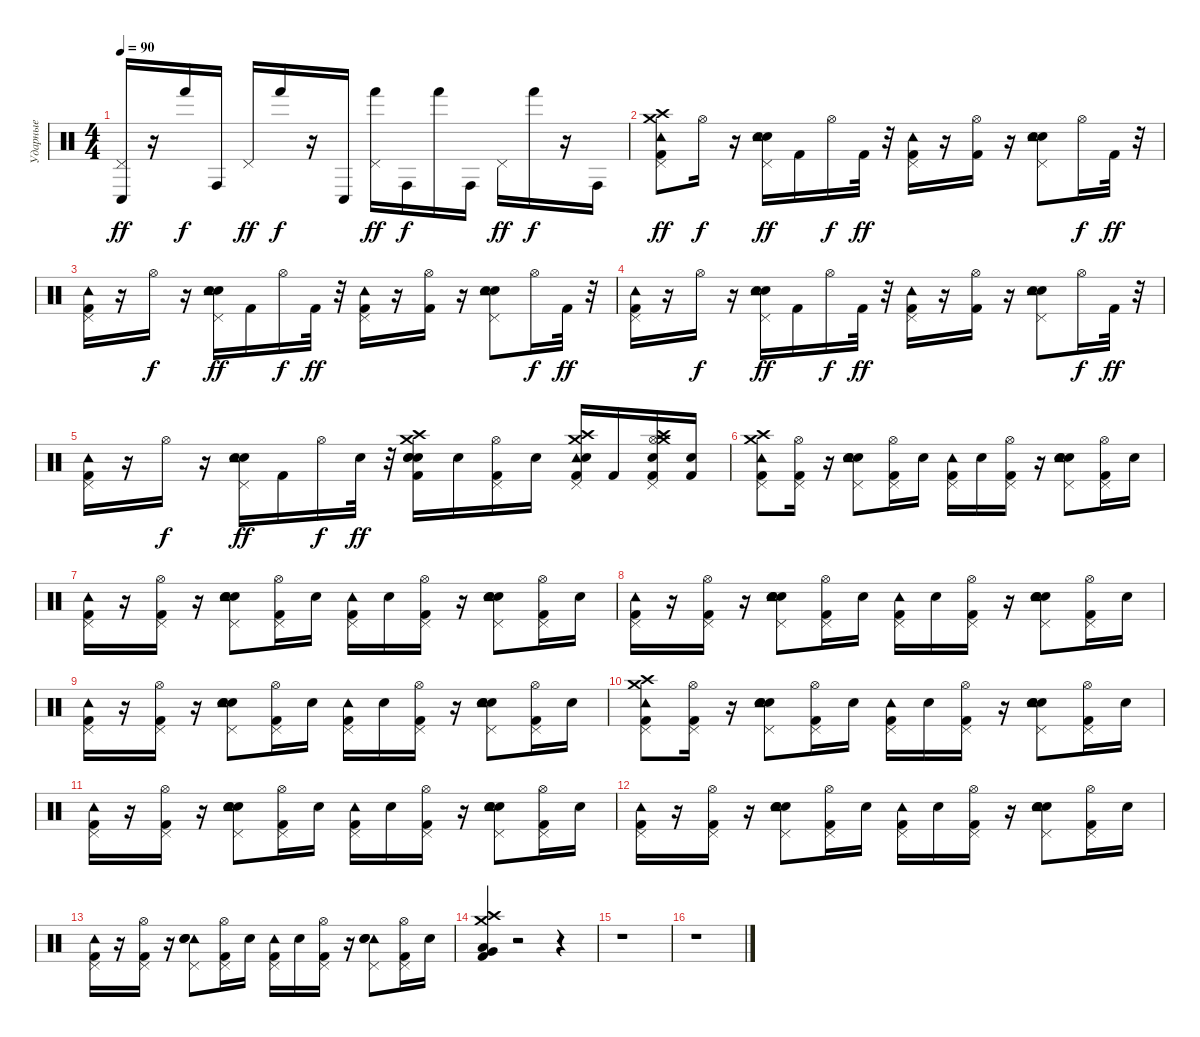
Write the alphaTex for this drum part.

\track ("Ударные" "Ударные") {instrument percussion}
\staff {score}
\articulation defaults
\ts (4 4)
\tempo 90
\clef neutral
\ks c
("Conga low (hit)" "Pedal Hi-Hat (hit)").16{dy ff} r.16 "Hand (hit)".16{dy f} "Conga high (hit)".16 "Pedal Hi-Hat (hit)".16{dy ff} "Hand (hit)".16{dy f} r.16 "Conga low (hit)".16 ("Hand (hit)" "Pedal Hi-Hat (hit)").16{dy ff} "Conga high (hit)".16{dy f} "Hand (hit)".16 "Conga high (hit)".16 "Pedal Hi-Hat (hit)".16{dy ff} "Hand (hit)".16{dy f} r.16 "Conga high (hit)".16 |
("Kick (hit) 2" "Tambourine (hit)" "Crash high (hit)" "Crash medium (hit)" "Pedal Hi-Hat (hit)").8{dy ff} "Hi-Hat (open)".16{dy f} r.16 ("Snare (hit) 2" "Hand Clap (hit)" "Tambourine (hit)" "Pedal Hi-Hat (hit)").16{dy ff} "Kick (hit) 2".16 "Hi-Hat (open)".16{dy f} "Kick (hit) 2".32{dy ff} r.32 ("Kick (hit) 2" "Tambourine (hit)" "Pedal Hi-Hat (hit)").16 r.16 ("Kick (hit) 2" "Hi-Hat (open)").16 r.16 ("Snare (hit) 2" "Hand Clap (hit)" "Tambourine (hit)" "Pedal Hi-Hat (hit)").8 "Hi-Hat (open)".16{dy f} "Kick (hit) 2".32{dy ff} r.32 |
("Kick (hit) 2" "Tambourine (hit)" "Pedal Hi-Hat (hit)").16 r.16 "Hi-Hat (open)".16{dy f} r.16 ("Snare (hit) 2" "Hand Clap (hit)" "Tambourine (hit)" "Pedal Hi-Hat (hit)").16{dy ff} "Kick (hit) 2".16 "Hi-Hat (open)".16{dy f} "Kick (hit) 2".32{dy ff} r.32 ("Kick (hit) 2" "Tambourine (hit)" "Pedal Hi-Hat (hit)").16 r.16 ("Kick (hit) 2" "Hi-Hat (open)").16 r.16 ("Snare (hit) 2" "Hand Clap (hit)" "Tambourine (hit)" "Pedal Hi-Hat (hit)").8 "Hi-Hat (open)".16{dy f} "Kick (hit) 2".32{dy ff} r.32 |
("Kick (hit) 2" "Tambourine (hit)" "Pedal Hi-Hat (hit)").16 r.16 "Hi-Hat (open)".16{dy f} r.16 ("Snare (hit) 2" "Hand Clap (hit)" "Tambourine (hit)" "Pedal Hi-Hat (hit)").16{dy ff} "Kick (hit) 2".16 "Hi-Hat (open)".16{dy f} "Kick (hit) 2".32{dy ff} r.32 ("Kick (hit) 2" "Tambourine (hit)" "Pedal Hi-Hat (hit)").16 r.16 ("Kick (hit) 2" "Hi-Hat (open)").16 r.16 ("Snare (hit) 2" "Hand Clap (hit)" "Tambourine (hit)" "Pedal Hi-Hat (hit)").8 "Hi-Hat (open)".16{dy f} "Kick (hit) 2".32{dy ff} r.32 |
("Kick (hit) 2" "Tambourine (hit)" "Pedal Hi-Hat (hit)").16 r.16 "Hi-Hat (open)".16{dy f} r.16 ("Snare (hit) 2" "Hand Clap (hit)" "Tambourine (hit)" "Pedal Hi-Hat (hit)").16{dy ff} "Kick (hit) 2".16 "Hi-Hat (open)".16{dy f} "Electric Snare (hit)".32{dy ff} r.32 ("Electric Snare (hit)" "Electric Snare (hit)" "Kick (hit) 2" "Crash high (hit)" "Crash medium (hit)" "Electric Snare (hit)").16 "Electric Snare (hit)".16 ("Kick (hit) 2" "Hi-Hat (open)" "Pedal Hi-Hat (hit)").16 "Electric Snare (hit)".16 ("Kick (hit) 2" "Crash high (hit)" "Crash medium (hit)" "Tambourine (hit)" "Pedal Hi-Hat (hit)" "Electric Snare (hit)").16 "Kick (hit) 2".16 ("Kick (hit) 2" "Hi-Hat (open)" "Pedal Hi-Hat (hit)" "Crash high (hit)" "Crash medium (hit)" "Electric Snare (hit)").16 ("Kick (hit) 2" "Electric Snare (hit)").16 |
("Kick (hit) 2" "Tambourine (hit)" "Crash high (hit)" "Crash medium (hit)" "Pedal Hi-Hat (hit)").8 ("Kick (hit) 2" "Hi-Hat (open)" "Pedal Hi-Hat (hit)").16 r.16 ("Electric Snare (hit)" "Snare (hit) 2" "Hand Clap (hit)" "Tambourine (hit)" "Pedal Hi-Hat (hit)").8 ("Kick (hit) 2" "Hi-Hat (open)" "Pedal Hi-Hat (hit)").16 "Snare (hit) 2".16 ("Kick (hit) 2" "Tambourine (hit)" "Pedal Hi-Hat (hit)").16 "Snare (hit) 2".16 ("Kick (hit) 2" "Hi-Hat (open)" "Pedal Hi-Hat (hit)").16 r.16 ("Electric Snare (hit)" "Snare (hit) 2" "Hand Clap (hit)" "Tambourine (hit)" "Pedal Hi-Hat (hit)").8 ("Kick (hit) 2" "Hi-Hat (open)" "Pedal Hi-Hat (hit)").16 "Snare (hit) 2".16 |
("Kick (hit) 2" "Tambourine (hit)" "Pedal Hi-Hat (hit)").16 r.16 ("Kick (hit) 2" "Hi-Hat (open)" "Pedal Hi-Hat (hit)").16 r.16 ("Electric Snare (hit)" "Hand Clap (hit)" "Snare (hit) 2" "Tambourine (hit)" "Pedal Hi-Hat (hit)").8 ("Kick (hit) 2" "Hi-Hat (open)" "Pedal Hi-Hat (hit)").16 "Snare (hit) 2".16 ("Kick (hit) 2" "Tambourine (hit)" "Pedal Hi-Hat (hit)").16 "Snare (hit) 2".16 ("Kick (hit) 2" "Hi-Hat (open)" "Pedal Hi-Hat (hit)").16 r.16 ("Electric Snare (hit)" "Hand Clap (hit)" "Snare (hit) 2" "Tambourine (hit)" "Pedal Hi-Hat (hit)").8 ("Kick (hit) 2" "Hi-Hat (open)" "Pedal Hi-Hat (hit)").16 "Snare (hit) 2".16 |
("Kick (hit) 2" "Tambourine (hit)" "Pedal Hi-Hat (hit)").16 r.16 ("Kick (hit) 2" "Hi-Hat (open)" "Pedal Hi-Hat (hit)").16 r.16 ("Electric Snare (hit)" "Hand Clap (hit)" "Snare (hit) 2" "Tambourine (hit)" "Pedal Hi-Hat (hit)").8 ("Kick (hit) 2" "Hi-Hat (open)" "Pedal Hi-Hat (hit)").16 "Snare (hit) 2".16 ("Kick (hit) 2" "Tambourine (hit)" "Pedal Hi-Hat (hit)").16 "Snare (hit) 2".16 ("Kick (hit) 2" "Hi-Hat (open)" "Pedal Hi-Hat (hit)").16 r.16 ("Electric Snare (hit)" "Hand Clap (hit)" "Snare (hit) 2" "Tambourine (hit)" "Pedal Hi-Hat (hit)").8 ("Kick (hit) 2" "Hi-Hat (open)" "Pedal Hi-Hat (hit)").16 "Snare (hit) 2".16 |
("Kick (hit) 2" "Tambourine (hit)" "Pedal Hi-Hat (hit)").16 r.16 ("Kick (hit) 2" "Hi-Hat (open)" "Pedal Hi-Hat (hit)").16 r.16 ("Electric Snare (hit)" "Hand Clap (hit)" "Snare (hit) 2" "Tambourine (hit)" "Pedal Hi-Hat (hit)").8 ("Kick (hit) 2" "Hi-Hat (open)" "Pedal Hi-Hat (hit)").16 "Snare (hit) 2".16 ("Kick (hit) 2" "Tambourine (hit)" "Pedal Hi-Hat (hit)").16 "Snare (hit) 2".16 ("Kick (hit) 2" "Hi-Hat (open)" "Pedal Hi-Hat (hit)").16 r.16 ("Electric Snare (hit)" "Hand Clap (hit)" "Snare (hit) 2" "Tambourine (hit)" "Pedal Hi-Hat (hit)").8 ("Kick (hit) 2" "Hi-Hat (open)" "Pedal Hi-Hat (hit)").16 "Snare (hit) 2".16 |
("Kick (hit) 2" "Tambourine (hit)" "Crash high (hit)" "Crash medium (hit)" "Pedal Hi-Hat (hit)").8 ("Kick (hit) 2" "Hi-Hat (open)" "Pedal Hi-Hat (hit)").16 r.16 ("Electric Snare (hit)" "Snare (hit) 2" "Hand Clap (hit)" "Tambourine (hit)" "Pedal Hi-Hat (hit)").8 ("Kick (hit) 2" "Hi-Hat (open)" "Pedal Hi-Hat (hit)").16 "Snare (hit) 2".16 ("Kick (hit) 2" "Tambourine (hit)" "Pedal Hi-Hat (hit)").16 "Snare (hit) 2".16 ("Kick (hit) 2" "Hi-Hat (open)" "Pedal Hi-Hat (hit)").16 r.16 ("Electric Snare (hit)" "Snare (hit) 2" "Hand Clap (hit)" "Tambourine (hit)" "Pedal Hi-Hat (hit)").8 ("Kick (hit) 2" "Hi-Hat (open)" "Pedal Hi-Hat (hit)").16 "Snare (hit) 2".16 |
("Kick (hit) 2" "Tambourine (hit)" "Pedal Hi-Hat (hit)").16 r.16 ("Kick (hit) 2" "Hi-Hat (open)" "Pedal Hi-Hat (hit)").16 r.16 ("Electric Snare (hit)" "Hand Clap (hit)" "Snare (hit) 2" "Tambourine (hit)" "Pedal Hi-Hat (hit)").8 ("Kick (hit) 2" "Hi-Hat (open)" "Pedal Hi-Hat (hit)").16 "Snare (hit) 2".16 ("Kick (hit) 2" "Tambourine (hit)" "Pedal Hi-Hat (hit)").16 "Snare (hit) 2".16 ("Kick (hit) 2" "Hi-Hat (open)" "Pedal Hi-Hat (hit)").16 r.16 ("Electric Snare (hit)" "Hand Clap (hit)" "Snare (hit) 2" "Tambourine (hit)" "Pedal Hi-Hat (hit)").8 ("Kick (hit) 2" "Hi-Hat (open)" "Pedal Hi-Hat (hit)").16 "Snare (hit) 2".16 |
("Tambourine (hit)" "Pedal Hi-Hat (hit)" "Kick (hit) 2").16 r.16 ("Kick (hit) 2" "Hi-Hat (open)" "Pedal Hi-Hat (hit)").16 r.16 ("Electric Snare (hit)" "Hand Clap (hit)" "Snare (hit) 2" "Tambourine (hit)" "Pedal Hi-Hat (hit)").8 ("Kick (hit) 2" "Hi-Hat (open)" "Pedal Hi-Hat (hit)").16 "Snare (hit) 2".16 ("Kick (hit) 2" "Tambourine (hit)" "Pedal Hi-Hat (hit)").16 "Snare (hit) 2".16 ("Kick (hit) 2" "Hi-Hat (open)" "Pedal Hi-Hat (hit)").16 r.16 ("Electric Snare (hit)" "Hand Clap (hit)" "Snare (hit) 2" "Tambourine (hit)" "Pedal Hi-Hat (hit)").8 ("Kick (hit) 2" "Hi-Hat (open)" "Pedal Hi-Hat (hit)").16 "Snare (hit) 2".16 |
("Tambourine (hit)" "Pedal Hi-Hat (hit)" "Kick (hit) 2").16 r.16 ("Hi-Hat (open)" "Pedal Hi-Hat (hit)" "Kick (hit) 2").16 r.16 ("Tambourine (hit)" "Pedal Hi-Hat (hit)" "Electric Snare (hit)" "Hand Clap (hit)" "Snare (hit) 2").8 ("Hi-Hat (open)" "Pedal Hi-Hat (hit)" "Kick (hit) 2").16 "Snare (hit) 2".16 ("Tambourine (hit)" "Pedal Hi-Hat (hit)" "Kick (hit) 2").16 "Snare (hit) 2".16 ("Hi-Hat (open)" "Pedal Hi-Hat (hit)" "Kick (hit) 2").16 r.16 ("Tambourine (hit)" "Pedal Hi-Hat (hit)" "Electric Snare (hit)" "Hand Clap (hit)" "Snare (hit) 2").8 ("Hi-Hat (open)" "Pedal Hi-Hat (hit)" "Kick (hit) 2").16 "Snare (hit) 2".16 |
("Crash high (hit)" "Crash medium (hit)" "Low Tom (hit)" "Very Low Tom (hit)" "Kick (hit) 2").4 r.2 r.4 |
r.1 |
r.1
